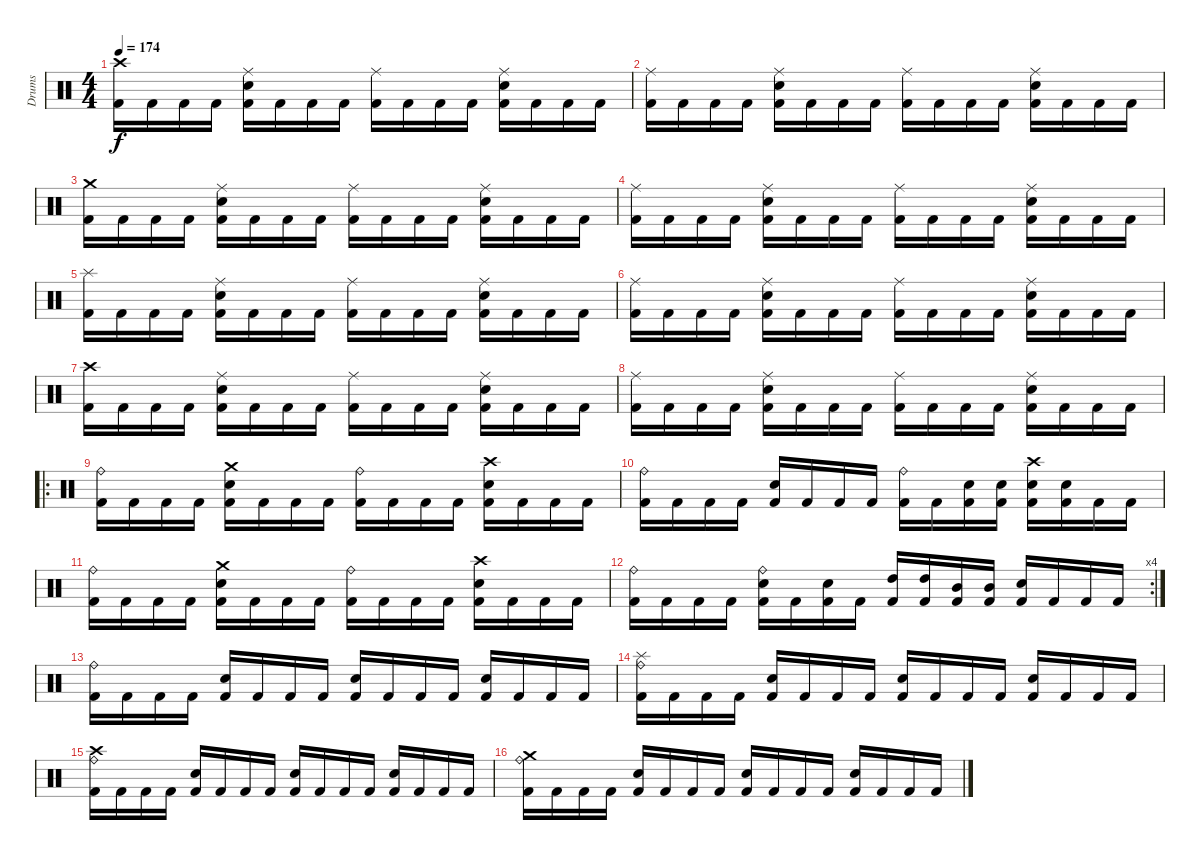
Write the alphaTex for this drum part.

\track ("Drums" "Drums") {instrument percussion}
\staff {score}
\articulation defaults
\ts (4 4)
\tempo 174
\clef neutral
\ks c
("Crash high (hit)" "Kick (hit) 2").16{dy f} "Kick (hit) 2".16 "Kick (hit) 2".16 "Kick (hit) 2".16 ("Electric Snare (hit)" "Ride (middle)" "Kick (hit) 2").16 "Kick (hit) 2".16 "Kick (hit) 2".16 "Kick (hit) 2".16 ("Ride (middle)" "Kick (hit) 2").16 "Kick (hit) 2".16 "Kick (hit) 2".16 "Kick (hit) 2".16 ("Electric Snare (hit)" "Ride (middle)" "Kick (hit) 2").16 "Kick (hit) 2".16 "Kick (hit) 2".16 "Kick (hit) 2".16 |
("Ride (middle)" "Kick (hit) 2").16 "Kick (hit) 2".16 "Kick (hit) 2".16 "Kick (hit) 2".16 ("Electric Snare (hit)" "Ride (middle)" "Kick (hit) 2").16 "Kick (hit) 2".16 "Kick (hit) 2".16 "Kick (hit) 2".16 ("Ride (middle)" "Kick (hit) 2").16 "Kick (hit) 2".16 "Kick (hit) 2".16 "Kick (hit) 2".16 ("Electric Snare (hit)" "Ride (middle)" "Kick (hit) 2").16 "Kick (hit) 2".16 "Kick (hit) 2".16 "Kick (hit) 2".16 |
("Crash medium (hit)" "Kick (hit) 2").16 "Kick (hit) 2".16 "Kick (hit) 2".16 "Kick (hit) 2".16 ("Electric Snare (hit)" "Ride (middle)" "Kick (hit) 2").16 "Kick (hit) 2".16 "Kick (hit) 2".16 "Kick (hit) 2".16 ("Ride (middle)" "Kick (hit) 2").16 "Kick (hit) 2".16 "Kick (hit) 2".16 "Kick (hit) 2".16 ("Electric Snare (hit)" "Ride (middle)" "Kick (hit) 2").16 "Kick (hit) 2".16 "Kick (hit) 2".16 "Kick (hit) 2".16 |
("Ride (middle)" "Kick (hit) 2").16 "Kick (hit) 2".16 "Kick (hit) 2".16 "Kick (hit) 2".16 ("Electric Snare (hit)" "Ride (middle)" "Kick (hit) 2").16 "Kick (hit) 2".16 "Kick (hit) 2".16 "Kick (hit) 2".16 ("Ride (middle)" "Kick (hit) 2").16 "Kick (hit) 2".16 "Kick (hit) 2".16 "Kick (hit) 2".16 ("Electric Snare (hit)" "Ride (middle)" "Kick (hit) 2").16 "Kick (hit) 2".16 "Kick (hit) 2".16 "Kick (hit) 2".16 |
("Splash (hit)" "Kick (hit) 2").16 "Kick (hit) 2".16 "Kick (hit) 2".16 "Kick (hit) 2".16 ("Electric Snare (hit)" "Ride (middle)" "Kick (hit) 2").16 "Kick (hit) 2".16 "Kick (hit) 2".16 "Kick (hit) 2".16 ("Ride (middle)" "Kick (hit) 2").16 "Kick (hit) 2".16 "Kick (hit) 2".16 "Kick (hit) 2".16 ("Electric Snare (hit)" "Ride (middle)" "Kick (hit) 2").16 "Kick (hit) 2".16 "Kick (hit) 2".16 "Kick (hit) 2".16 |
("Ride (middle)" "Kick (hit) 2").16 "Kick (hit) 2".16 "Kick (hit) 2".16 "Kick (hit) 2".16 ("Electric Snare (hit)" "Ride (middle)" "Kick (hit) 2").16 "Kick (hit) 2".16 "Kick (hit) 2".16 "Kick (hit) 2".16 ("Ride (middle)" "Kick (hit) 2").16 "Kick (hit) 2".16 "Kick (hit) 2".16 "Kick (hit) 2".16 ("Electric Snare (hit)" "Ride (middle)" "Kick (hit) 2").16 "Kick (hit) 2".16 "Kick (hit) 2".16 "Kick (hit) 2".16 |
("Crash high (hit)" "Kick (hit) 2").16 "Kick (hit) 2".16 "Kick (hit) 2".16 "Kick (hit) 2".16 ("Electric Snare (hit)" "Ride (middle)" "Kick (hit) 2").16 "Kick (hit) 2".16 "Kick (hit) 2".16 "Kick (hit) 2".16 ("Ride (middle)" "Kick (hit) 2").16 "Kick (hit) 2".16 "Kick (hit) 2".16 "Kick (hit) 2".16 ("Electric Snare (hit)" "Ride (middle)" "Kick (hit) 2").16 "Kick (hit) 2".16 "Kick (hit) 2".16 "Kick (hit) 2".16 |
("Ride (middle)" "Kick (hit) 2").16 "Kick (hit) 2".16 "Kick (hit) 2".16 "Kick (hit) 2".16 ("Electric Snare (hit)" "Ride (middle)" "Kick (hit) 2").16 "Kick (hit) 2".16 "Kick (hit) 2".16 "Kick (hit) 2".16 ("Ride (middle)" "Kick (hit) 2").16 "Kick (hit) 2".16 "Kick (hit) 2".16 "Kick (hit) 2".16 ("Electric Snare (hit)" "Ride (middle)" "Kick (hit) 2").16 "Kick (hit) 2".16 "Kick (hit) 2".16 "Kick (hit) 2".16 |
\ro
("Ride (bell)" "Kick (hit) 2").16 "Kick (hit) 2".16 "Kick (hit) 2".16 "Kick (hit) 2".16 ("Crash medium (hit)" "Electric Snare (hit)" "Kick (hit) 2").16 "Kick (hit) 2".16 "Kick (hit) 2".16 "Kick (hit) 2".16 ("Ride (bell)" "Kick (hit) 2").16 "Kick (hit) 2".16 "Kick (hit) 2".16 "Kick (hit) 2".16 ("Crash high (hit)" "Electric Snare (hit)" "Kick (hit) 2").16 "Kick (hit) 2".16 "Kick (hit) 2".16 "Kick (hit) 2".16 |
("Ride (bell)" "Kick (hit) 2").16 "Kick (hit) 2".16 "Kick (hit) 2".16 "Kick (hit) 2".16 ("Electric Snare (hit)" "Kick (hit) 2").16 "Kick (hit) 2".16 "Kick (hit) 2".16 "Kick (hit) 2".16 ("Ride (bell)" "Kick (hit) 2").16 "Kick (hit) 2".16 ("Electric Snare (hit)" "Kick (hit) 2").16 ("Electric Snare (hit)" "Kick (hit) 2").16 ("Crash high (hit)" "Electric Snare (hit)" "Kick (hit) 2").16 ("Electric Snare (hit)" "Kick (hit) 2").16 "Kick (hit) 2".16 "Kick (hit) 2".16 |
("Ride (bell)" "Kick (hit) 2").16 "Kick (hit) 2".16 "Kick (hit) 2".16 "Kick (hit) 2".16 ("Crash medium (hit)" "Electric Snare (hit)" "Kick (hit) 2").16 "Kick (hit) 2".16 "Kick (hit) 2".16 "Kick (hit) 2".16 ("Ride (bell)" "Kick (hit) 2").16 "Kick (hit) 2".16 "Kick (hit) 2".16 "Kick (hit) 2".16 ("Crash high (hit)" "Electric Snare (hit)" "Kick (hit) 2").16 "Kick (hit) 2".16 "Kick (hit) 2".16 "Kick (hit) 2".16 |
\rc 4
("Ride (bell)" "Kick (hit) 2").16 "Kick (hit) 2".16 "Kick (hit) 2".16 "Kick (hit) 2".16 ("Electric Snare (hit)" "Ride (bell)" "Kick (hit) 2").16 "Kick (hit) 2".16 ("Electric Snare (hit)" "Kick (hit) 2").16 "Kick (hit) 2".16 ("High Tom (hit)" "Kick (hit) 2").16 ("High Tom (hit)" "Kick (hit) 2").16 ("Mid Tom (hit)" "Kick (hit) 2").16 ("Mid Tom (hit)" "Kick (hit) 2").16 ("Electric Snare (hit)" "Kick (hit) 2").16 "Kick (hit) 2".16 "Kick (hit) 2".16 "Kick (hit) 2".16 |
("Ride (bell)" "Kick (hit) 2").16 "Kick (hit) 2".16 "Kick (hit) 2".16 "Kick (hit) 2".16 ("Electric Snare (hit)" "Kick (hit) 2").16 "Kick (hit) 2".16 "Kick (hit) 2".16 "Kick (hit) 2".16 ("Electric Snare (hit)" "Kick (hit) 2").16 "Kick (hit) 2".16 "Kick (hit) 2".16 "Kick (hit) 2".16 ("Electric Snare (hit)" "Kick (hit) 2").16 "Kick (hit) 2".16 "Kick (hit) 2".16 "Kick (hit) 2".16 |
("Ride (bell)" "Splash (hit)" "Kick (hit) 2").16 "Kick (hit) 2".16 "Kick (hit) 2".16 "Kick (hit) 2".16 ("Electric Snare (hit)" "Kick (hit) 2").16 "Kick (hit) 2".16 "Kick (hit) 2".16 "Kick (hit) 2".16 ("Electric Snare (hit)" "Kick (hit) 2").16 "Kick (hit) 2".16 "Kick (hit) 2".16 "Kick (hit) 2".16 ("Electric Snare (hit)" "Kick (hit) 2").16 "Kick (hit) 2".16 "Kick (hit) 2".16 "Kick (hit) 2".16 |
("Ride (bell)" "Crash high (hit)" "Kick (hit) 2").16 "Kick (hit) 2".16 "Kick (hit) 2".16 "Kick (hit) 2".16 ("Electric Snare (hit)" "Kick (hit) 2").16 "Kick (hit) 2".16 "Kick (hit) 2".16 "Kick (hit) 2".16 ("Electric Snare (hit)" "Kick (hit) 2").16 "Kick (hit) 2".16 "Kick (hit) 2".16 "Kick (hit) 2".16 ("Electric Snare (hit)" "Kick (hit) 2").16 "Kick (hit) 2".16 "Kick (hit) 2".16 "Kick (hit) 2".16 |
("Ride (bell)" "Crash medium (hit)" "Kick (hit) 2").16 "Kick (hit) 2".16 "Kick (hit) 2".16 "Kick (hit) 2".16 ("Electric Snare (hit)" "Kick (hit) 2").16 "Kick (hit) 2".16 "Kick (hit) 2".16 "Kick (hit) 2".16 ("Electric Snare (hit)" "Kick (hit) 2").16 "Kick (hit) 2".16 "Kick (hit) 2".16 "Kick (hit) 2".16 ("Electric Snare (hit)" "Kick (hit) 2").16 "Kick (hit) 2".16 "Kick (hit) 2".16 "Kick (hit) 2".16
